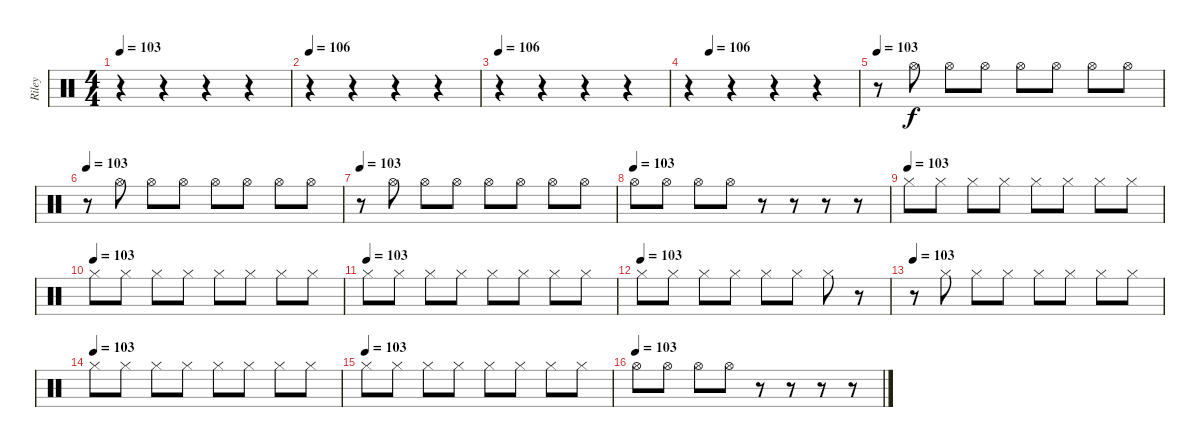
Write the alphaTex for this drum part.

\track ("Riley" "Riley") {instrument percussion}
\staff {score}
\articulation defaults
\ts (4 4)
\tempo 103
\tempo 106
\tempo 103
\clef neutral
\ks c
r.4{dy f} r.4 r.4 r.4 |
\tempo 106
r.4 r.4 r.4 r.4 |
\tempo 106
r.4 r.4 r.4 r.4 |
\tempo (106 0.125)
r.4 r.4 r.4 r.4 |
\tempo 103
r.8 "Hi-Hat (open)".8 "Hi-Hat (open)".8 "Hi-Hat (open)".8 "Hi-Hat (open)".8 "Hi-Hat (open)".8 "Hi-Hat (open)".8 "Hi-Hat (open)".8 |
\tempo 103
r.8 "Hi-Hat (open)".8 "Hi-Hat (open)".8 "Hi-Hat (open)".8 "Hi-Hat (open)".8 "Hi-Hat (open)".8 "Hi-Hat (open)".8 "Hi-Hat (open)".8 |
\tempo 103
r.8 "Hi-Hat (open)".8 "Hi-Hat (open)".8 "Hi-Hat (open)".8 "Hi-Hat (open)".8 "Hi-Hat (open)".8 "Hi-Hat (open)".8 "Hi-Hat (open)".8 |
\tempo (103)
"Hi-Hat (open)".8 "Hi-Hat (open)".8 "Hi-Hat (open)".8 "Hi-Hat (open)".8 r.8 r.8 r.8 r.8 |
\tempo (103)
"Hi-Hat (closed)".8 "Hi-Hat (closed)".8 "Hi-Hat (closed)".8 "Hi-Hat (closed)".8 "Hi-Hat (closed)".8 "Hi-Hat (closed)".8 "Hi-Hat (closed)".8 "Hi-Hat (closed)".8 |
\tempo (103)
"Hi-Hat (closed)".8 "Hi-Hat (closed)".8 "Hi-Hat (closed)".8 "Hi-Hat (closed)".8 "Hi-Hat (closed)".8 "Hi-Hat (closed)".8 "Hi-Hat (closed)".8 "Hi-Hat (closed)".8 |
\tempo (103)
"Hi-Hat (closed)".8 "Hi-Hat (closed)".8 "Hi-Hat (closed)".8 "Hi-Hat (closed)".8 "Hi-Hat (closed)".8 "Hi-Hat (closed)".8 "Hi-Hat (closed)".8 "Hi-Hat (closed)".8 |
\tempo (103)
"Hi-Hat (closed)".8 "Hi-Hat (closed)".8 "Hi-Hat (closed)".8 "Hi-Hat (closed)".8 "Hi-Hat (closed)".8 "Hi-Hat (closed)".8 "Hi-Hat (closed)".8 r.8 |
\tempo 103
r.8 "Hi-Hat (closed)".8 "Hi-Hat (closed)".8 "Hi-Hat (closed)".8 "Hi-Hat (closed)".8 "Hi-Hat (closed)".8 "Hi-Hat (closed)".8 "Hi-Hat (closed)".8 |
\tempo (103)
"Hi-Hat (closed)".8 "Hi-Hat (closed)".8 "Hi-Hat (closed)".8 "Hi-Hat (closed)".8 "Hi-Hat (closed)".8 "Hi-Hat (closed)".8 "Hi-Hat (closed)".8 "Hi-Hat (closed)".8 |
\tempo (103)
"Hi-Hat (closed)".8 "Hi-Hat (closed)".8 "Hi-Hat (closed)".8 "Hi-Hat (closed)".8 "Hi-Hat (closed)".8 "Hi-Hat (closed)".8 "Hi-Hat (closed)".8 "Hi-Hat (closed)".8 |
\tempo (103)
"Hi-Hat (open)".8 "Hi-Hat (open)".8 "Hi-Hat (open)".8 "Hi-Hat (open)".8 r.8 r.8 r.8 r.8
